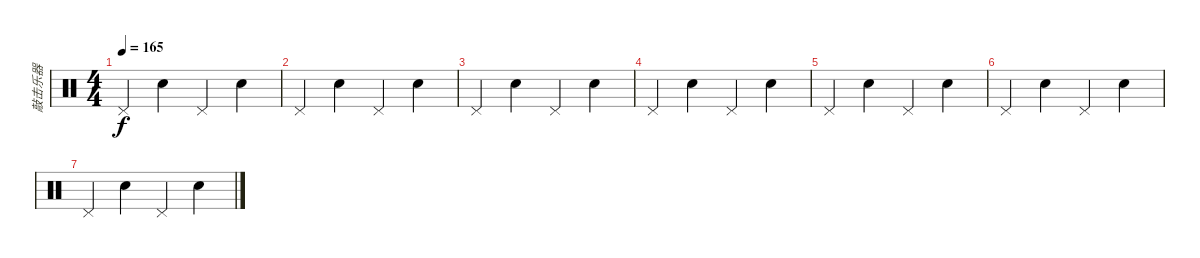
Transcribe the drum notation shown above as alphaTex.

\track ("敲击乐器" "敲击乐器") {instrument percussion}
\staff {score}
\articulation defaults
\ts (4 4)
\tempo 165
\clef neutral
\ks c "Pedal Hi-Hat (hit)".4{dy f} "Snare (hit) 2".4 "Pedal Hi-Hat (hit)".4 "Snare (hit) 2".4
|
"Pedal Hi-Hat (hit)".4 "Snare (hit) 2".4 "Pedal Hi-Hat (hit)".4 "Snare (hit) 2".4 |
"Pedal Hi-Hat (hit)".4 "Snare (hit) 2".4 "Pedal Hi-Hat (hit)".4 "Snare (hit) 2".4 |
"Pedal Hi-Hat (hit)".4 "Snare (hit) 2".4 "Pedal Hi-Hat (hit)".4 "Snare (hit) 2".4 |
"Pedal Hi-Hat (hit)".4 "Snare (hit) 2".4 "Pedal Hi-Hat (hit)".4 "Snare (hit) 2".4 |
"Pedal Hi-Hat (hit)".4 "Snare (hit) 2".4 "Pedal Hi-Hat (hit)".4 "Snare (hit) 2".4 |
"Pedal Hi-Hat (hit)".4 "Snare (hit) 2".4 "Pedal Hi-Hat (hit)".4 "Snare (hit) 2".4
